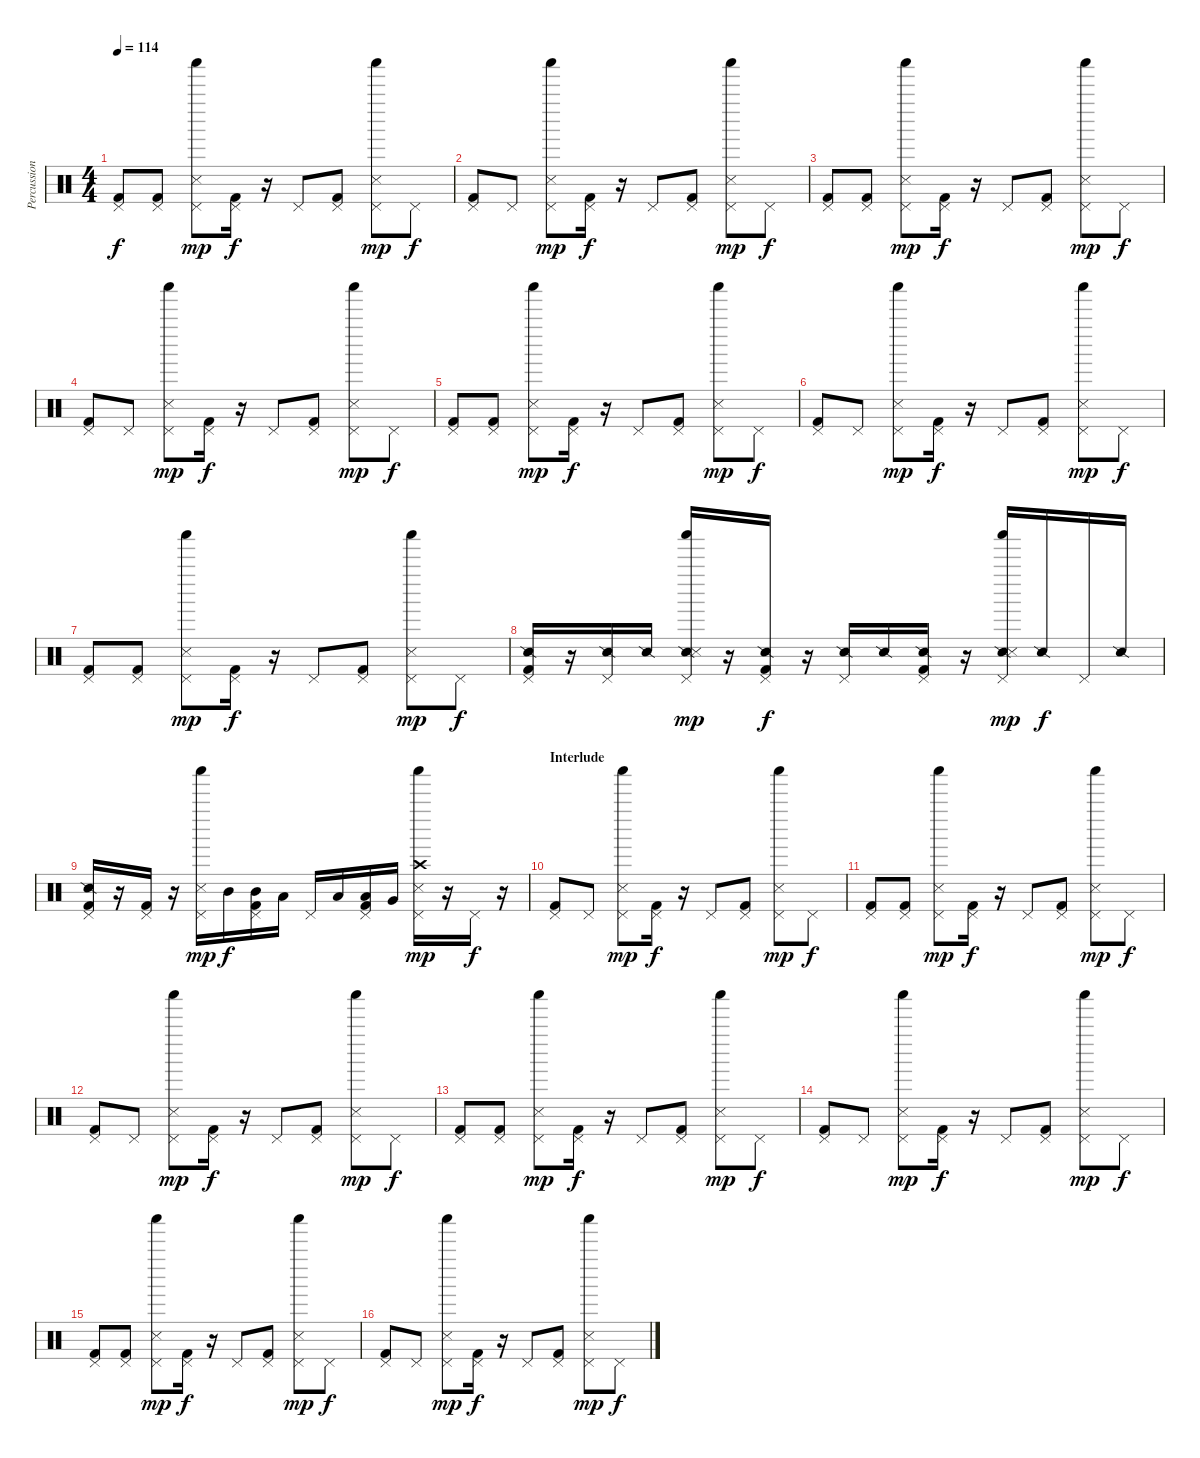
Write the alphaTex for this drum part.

\track ("Percussion" "Percussion") {instrument percussion}
\staff {score}
\articulation defaults
\ts (4 4)
\tempo 114
\clef neutral
\ks c
("Pedal Hi-Hat (hit)" "Kick (hit) 2").8{dy f} ("Pedal Hi-Hat (hit)" "Kick (hit) 2").8 ("Pedal Hi-Hat (hit)" "Snare (side stick) 3" "Shaker (hit)").8{dy mp} ("Pedal Hi-Hat (hit)" "Kick (hit) 2").16{dy f} r.16 "Pedal Hi-Hat (hit)".8 ("Pedal Hi-Hat (hit)" "Kick (hit) 2").8 ("Pedal Hi-Hat (hit)" "Snare (side stick) 3" "Shaker (hit)").8{dy mp} "Pedal Hi-Hat (hit)".8{dy f} |
("Pedal Hi-Hat (hit)" "Kick (hit) 2").8 "Pedal Hi-Hat (hit)".8 ("Pedal Hi-Hat (hit)" "Snare (side stick) 3" "Shaker (hit)").8{dy mp} ("Pedal Hi-Hat (hit)" "Kick (hit) 2").16{dy f} r.16 "Pedal Hi-Hat (hit)".8 ("Pedal Hi-Hat (hit)" "Kick (hit) 2").8 ("Pedal Hi-Hat (hit)" "Snare (side stick) 3" "Shaker (hit)").8{dy mp} "Pedal Hi-Hat (hit)".8{dy f} |
("Pedal Hi-Hat (hit)" "Kick (hit) 2").8 ("Pedal Hi-Hat (hit)" "Kick (hit) 2").8 ("Pedal Hi-Hat (hit)" "Snare (side stick) 3" "Shaker (hit)").8{dy mp} ("Pedal Hi-Hat (hit)" "Kick (hit) 2").16{dy f} r.16 "Pedal Hi-Hat (hit)".8 ("Pedal Hi-Hat (hit)" "Kick (hit) 2").8 ("Pedal Hi-Hat (hit)" "Snare (side stick) 3" "Shaker (hit)").8{dy mp} "Pedal Hi-Hat (hit)".8{dy f} |
("Pedal Hi-Hat (hit)" "Kick (hit) 2").8 "Pedal Hi-Hat (hit)".8 ("Pedal Hi-Hat (hit)" "Snare (side stick) 3" "Shaker (hit)").8{dy mp} ("Pedal Hi-Hat (hit)" "Kick (hit) 2").16{dy f} r.16 "Pedal Hi-Hat (hit)".8 ("Pedal Hi-Hat (hit)" "Kick (hit) 2").8 ("Pedal Hi-Hat (hit)" "Snare (side stick) 3" "Shaker (hit)").8{dy mp} "Pedal Hi-Hat (hit)".8{dy f} |
("Pedal Hi-Hat (hit)" "Kick (hit) 2").8 ("Pedal Hi-Hat (hit)" "Kick (hit) 2").8 ("Pedal Hi-Hat (hit)" "Snare (side stick) 3" "Shaker (hit)").8{dy mp} ("Pedal Hi-Hat (hit)" "Kick (hit) 2").16{dy f} r.16 "Pedal Hi-Hat (hit)".8 ("Pedal Hi-Hat (hit)" "Kick (hit) 2").8 ("Pedal Hi-Hat (hit)" "Snare (side stick) 3" "Shaker (hit)").8{dy mp} "Pedal Hi-Hat (hit)".8{dy f} |
("Pedal Hi-Hat (hit)" "Kick (hit) 2").8 "Pedal Hi-Hat (hit)".8 ("Pedal Hi-Hat (hit)" "Snare (side stick) 3" "Shaker (hit)").8{dy mp} ("Pedal Hi-Hat (hit)" "Kick (hit) 2").16{dy f} r.16 "Pedal Hi-Hat (hit)".8 ("Pedal Hi-Hat (hit)" "Kick (hit) 2").8 ("Pedal Hi-Hat (hit)" "Snare (side stick) 3" "Shaker (hit)").8{dy mp} "Pedal Hi-Hat (hit)".8{dy f} |
("Pedal Hi-Hat (hit)" "Kick (hit) 2").8 ("Pedal Hi-Hat (hit)" "Kick (hit) 2").8 ("Pedal Hi-Hat (hit)" "Snare (side stick) 3" "Shaker (hit)").8{dy mp} ("Pedal Hi-Hat (hit)" "Kick (hit) 2").16{dy f} r.16 "Pedal Hi-Hat (hit)".8 ("Pedal Hi-Hat (hit)" "Kick (hit) 2").8 ("Pedal Hi-Hat (hit)" "Snare (side stick) 3" "Shaker (hit)").8{dy mp} "Pedal Hi-Hat (hit)".8{dy f} |
("Pedal Hi-Hat (hit)" "Snare (side stick) 2" "Kick (hit) 2").16 r.16 ("Pedal Hi-Hat (hit)" "Snare (side stick) 2").16 "Snare (side stick) 2".16 ("Pedal Hi-Hat (hit)" "Snare (side stick) 2" "Snare (side stick) 3" "Shaker (hit)").16{dy mp} r.16 ("Pedal Hi-Hat (hit)" "Snare (side stick) 2" "Kick (hit) 2").16{dy f} r.16 ("Pedal Hi-Hat (hit)" "Snare (side stick) 2").16 "Snare (side stick) 2".16 ("Pedal Hi-Hat (hit)" "Snare (side stick) 2" "Kick (hit) 2").16 r.16 ("Pedal Hi-Hat (hit)" "Snare (side stick) 2" "Snare (side stick) 3" "Shaker (hit)").16{dy mp} "Snare (side stick) 2".16{dy f} "Pedal Hi-Hat (hit)".16 "Snare (side stick) 2".16 |
("Pedal Hi-Hat (hit)" "Snare (side stick) 2" "Kick (hit) 2").16 r.16 ("Pedal Hi-Hat (hit)" "Kick (hit) 2").16 r.16 ("Pedal Hi-Hat (hit)" "Snare (side stick) 3" "Shaker (hit)").16{dy mp} "Mid Tom (hit)".16{dy f} ("Pedal Hi-Hat (hit)" "Mid Tom (hit)" "Kick (hit) 2").16 "Low Tom (hit)".16 "Pedal Hi-Hat (hit)".16 "Low Tom (hit)".16 ("Pedal Hi-Hat (hit)" "Low Tom (hit)" "Kick (hit) 2").16 "Very Low Tom (hit)".16 ("Pedal Hi-Hat (hit)" "Crash high (hit)" "Snare (side stick) 3" "Shaker (hit)").16{dy mp} r.16 "Pedal Hi-Hat (hit)".16{dy f} r.16 |
\section ("" "Interlude")
("Pedal Hi-Hat (hit)" "Kick (hit) 2").8 "Pedal Hi-Hat (hit)".8 ("Pedal Hi-Hat (hit)" "Snare (side stick) 3" "Shaker (hit)").8{dy mp} ("Pedal Hi-Hat (hit)" "Kick (hit) 2").16{dy f} r.16 "Pedal Hi-Hat (hit)".8 ("Pedal Hi-Hat (hit)" "Kick (hit) 2").8 ("Pedal Hi-Hat (hit)" "Snare (side stick) 3" "Shaker (hit)").8{dy mp} "Pedal Hi-Hat (hit)".8{dy f} |
("Pedal Hi-Hat (hit)" "Kick (hit) 2").8 ("Pedal Hi-Hat (hit)" "Kick (hit) 2").8 ("Pedal Hi-Hat (hit)" "Snare (side stick) 3" "Shaker (hit)").8{dy mp} ("Pedal Hi-Hat (hit)" "Kick (hit) 2").16{dy f} r.16 "Pedal Hi-Hat (hit)".8 ("Pedal Hi-Hat (hit)" "Kick (hit) 2").8 ("Pedal Hi-Hat (hit)" "Snare (side stick) 3" "Shaker (hit)").8{dy mp} "Pedal Hi-Hat (hit)".8{dy f} |
("Pedal Hi-Hat (hit)" "Kick (hit) 2").8 "Pedal Hi-Hat (hit)".8 ("Pedal Hi-Hat (hit)" "Snare (side stick) 3" "Shaker (hit)").8{dy mp} ("Pedal Hi-Hat (hit)" "Kick (hit) 2").16{dy f} r.16 "Pedal Hi-Hat (hit)".8 ("Pedal Hi-Hat (hit)" "Kick (hit) 2").8 ("Pedal Hi-Hat (hit)" "Snare (side stick) 3" "Shaker (hit)").8{dy mp} "Pedal Hi-Hat (hit)".8{dy f} |
("Pedal Hi-Hat (hit)" "Kick (hit) 2").8 ("Pedal Hi-Hat (hit)" "Kick (hit) 2").8 ("Pedal Hi-Hat (hit)" "Snare (side stick) 3" "Shaker (hit)").8{dy mp} ("Pedal Hi-Hat (hit)" "Kick (hit) 2").16{dy f} r.16 "Pedal Hi-Hat (hit)".8 ("Pedal Hi-Hat (hit)" "Kick (hit) 2").8 ("Pedal Hi-Hat (hit)" "Snare (side stick) 3" "Shaker (hit)").8{dy mp} "Pedal Hi-Hat (hit)".8{dy f} |
("Pedal Hi-Hat (hit)" "Kick (hit) 2").8 "Pedal Hi-Hat (hit)".8 ("Pedal Hi-Hat (hit)" "Snare (side stick) 3" "Shaker (hit)").8{dy mp} ("Pedal Hi-Hat (hit)" "Kick (hit) 2").16{dy f} r.16 "Pedal Hi-Hat (hit)".8 ("Pedal Hi-Hat (hit)" "Kick (hit) 2").8 ("Pedal Hi-Hat (hit)" "Snare (side stick) 3" "Shaker (hit)").8{dy mp} "Pedal Hi-Hat (hit)".8{dy f} |
("Pedal Hi-Hat (hit)" "Kick (hit) 2").8 ("Pedal Hi-Hat (hit)" "Kick (hit) 2").8 ("Pedal Hi-Hat (hit)" "Snare (side stick) 3" "Shaker (hit)").8{dy mp} ("Pedal Hi-Hat (hit)" "Kick (hit) 2").16{dy f} r.16 "Pedal Hi-Hat (hit)".8 ("Pedal Hi-Hat (hit)" "Kick (hit) 2").8 ("Pedal Hi-Hat (hit)" "Snare (side stick) 3" "Shaker (hit)").8{dy mp} "Pedal Hi-Hat (hit)".8{dy f} |
("Pedal Hi-Hat (hit)" "Kick (hit) 2").8 "Pedal Hi-Hat (hit)".8 ("Pedal Hi-Hat (hit)" "Snare (side stick) 3" "Shaker (hit)").8{dy mp} ("Pedal Hi-Hat (hit)" "Kick (hit) 2").16{dy f} r.16 "Pedal Hi-Hat (hit)".8 ("Pedal Hi-Hat (hit)" "Kick (hit) 2").8 ("Pedal Hi-Hat (hit)" "Snare (side stick) 3" "Shaker (hit)").8{dy mp} "Pedal Hi-Hat (hit)".8{dy f}
